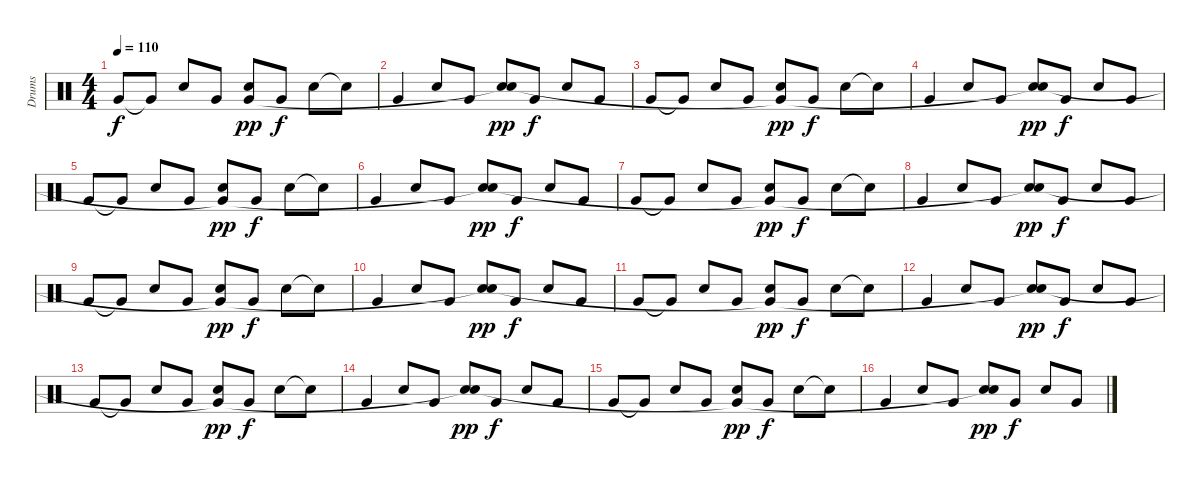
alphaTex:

\track ("Drums" "Drums") {instrument percussion}
\staff {score}
\articulation defaults
\ts (4 4)
\tempo 110
\clef neutral
\ks c "Very Low Tom (hit)".8{dy f} "Very Low Tom (hit)"{t}.8 "Electric Snare (hit)".8 "Very Low Tom (hit)".8
("Electric Snare (hit)" "Very Low Tom (hit)"{t}).8{dy pp} "Very Low Tom (hit)".8{dy f} "Electric Snare (hit)".8 "Snare (hit)"{t}.8 |
"Very Low Tom (hit)".4 "Electric Snare (hit)".8 "Very Low Tom (hit)".8 ("Electric Snare (hit)" "Snare (hit)"{t}).8{dy pp} "Very Low Tom (hit)".8{dy f} "Electric Snare (hit)".8 "Very Low Tom (hit)".8 |
"Very Low Tom (hit)".8 "Very Low Tom (hit)"{t}.8 "Electric Snare (hit)".8 "Very Low Tom (hit)".8 ("Electric Snare (hit)" "Very Low Tom (hit)"{t}).8{dy pp} "Very Low Tom (hit)".8{dy f} "Electric Snare (hit)".8 "Snare (hit)"{t}.8 |
"Very Low Tom (hit)".4 "Electric Snare (hit)".8 "Very Low Tom (hit)".8 ("Electric Snare (hit)" "Snare (hit)"{t}).8{dy pp} "Very Low Tom (hit)".8{dy f} "Electric Snare (hit)".8 "Very Low Tom (hit)".8 |
"Very Low Tom (hit)".8 "Very Low Tom (hit)"{t}.8 "Electric Snare (hit)".8 "Very Low Tom (hit)".8 ("Electric Snare (hit)" "Very Low Tom (hit)"{t}).8{dy pp} "Very Low Tom (hit)".8{dy f} "Electric Snare (hit)".8 "Snare (hit)"{t}.8 |
"Very Low Tom (hit)".4 "Electric Snare (hit)".8 "Very Low Tom (hit)".8 ("Electric Snare (hit)" "Snare (hit)"{t}).8{dy pp} "Very Low Tom (hit)".8{dy f} "Electric Snare (hit)".8 "Very Low Tom (hit)".8 |
"Very Low Tom (hit)".8 "Very Low Tom (hit)"{t}.8 "Electric Snare (hit)".8 "Very Low Tom (hit)".8 ("Electric Snare (hit)" "Very Low Tom (hit)"{t}).8{dy pp} "Very Low Tom (hit)".8{dy f} "Electric Snare (hit)".8 "Snare (hit)"{t}.8 |
"Very Low Tom (hit)".4 "Electric Snare (hit)".8 "Very Low Tom (hit)".8 ("Electric Snare (hit)" "Snare (hit)"{t}).8{dy pp} "Very Low Tom (hit)".8{dy f} "Electric Snare (hit)".8 "Very Low Tom (hit)".8 |
"Very Low Tom (hit)".8 "Very Low Tom (hit)"{t}.8 "Electric Snare (hit)".8 "Very Low Tom (hit)".8 ("Electric Snare (hit)" "Very Low Tom (hit)"{t}).8{dy pp} "Very Low Tom (hit)".8{dy f} "Electric Snare (hit)".8 "Snare (hit)"{t}.8 |
"Very Low Tom (hit)".4 "Electric Snare (hit)".8 "Very Low Tom (hit)".8 ("Electric Snare (hit)" "Snare (hit)"{t}).8{dy pp} "Very Low Tom (hit)".8{dy f} "Electric Snare (hit)".8 "Very Low Tom (hit)".8 |
"Very Low Tom (hit)".8 "Very Low Tom (hit)"{t}.8 "Electric Snare (hit)".8 "Very Low Tom (hit)".8 ("Electric Snare (hit)" "Very Low Tom (hit)"{t}).8{dy pp} "Very Low Tom (hit)".8{dy f} "Electric Snare (hit)".8 "Snare (hit)"{t}.8 |
"Very Low Tom (hit)".4 "Electric Snare (hit)".8 "Very Low Tom (hit)".8 ("Electric Snare (hit)" "Snare (hit)"{t}).8{dy pp} "Very Low Tom (hit)".8{dy f} "Electric Snare (hit)".8 "Very Low Tom (hit)".8 |
"Very Low Tom (hit)".8 "Very Low Tom (hit)"{t}.8 "Electric Snare (hit)".8 "Very Low Tom (hit)".8 ("Electric Snare (hit)" "Very Low Tom (hit)"{t}).8{dy pp} "Very Low Tom (hit)".8{dy f} "Electric Snare (hit)".8 "Snare (hit)"{t}.8 |
"Very Low Tom (hit)".4 "Electric Snare (hit)".8 "Very Low Tom (hit)".8 ("Electric Snare (hit)" "Snare (hit)"{t}).8{dy pp} "Very Low Tom (hit)".8{dy f} "Electric Snare (hit)".8 "Very Low Tom (hit)".8 |
"Very Low Tom (hit)".8 "Very Low Tom (hit)"{t}.8 "Electric Snare (hit)".8 "Very Low Tom (hit)".8 ("Electric Snare (hit)" "Very Low Tom (hit)"{t}).8{dy pp} "Very Low Tom (hit)".8{dy f} "Electric Snare (hit)".8 "Snare (hit)"{t}.8 |
"Very Low Tom (hit)".4 "Electric Snare (hit)".8 "Very Low Tom (hit)".8 ("Electric Snare (hit)" "Snare (hit)"{t}).8{dy pp} "Very Low Tom (hit)".8{dy f} "Electric Snare (hit)".8 "Very Low Tom (hit)".8
